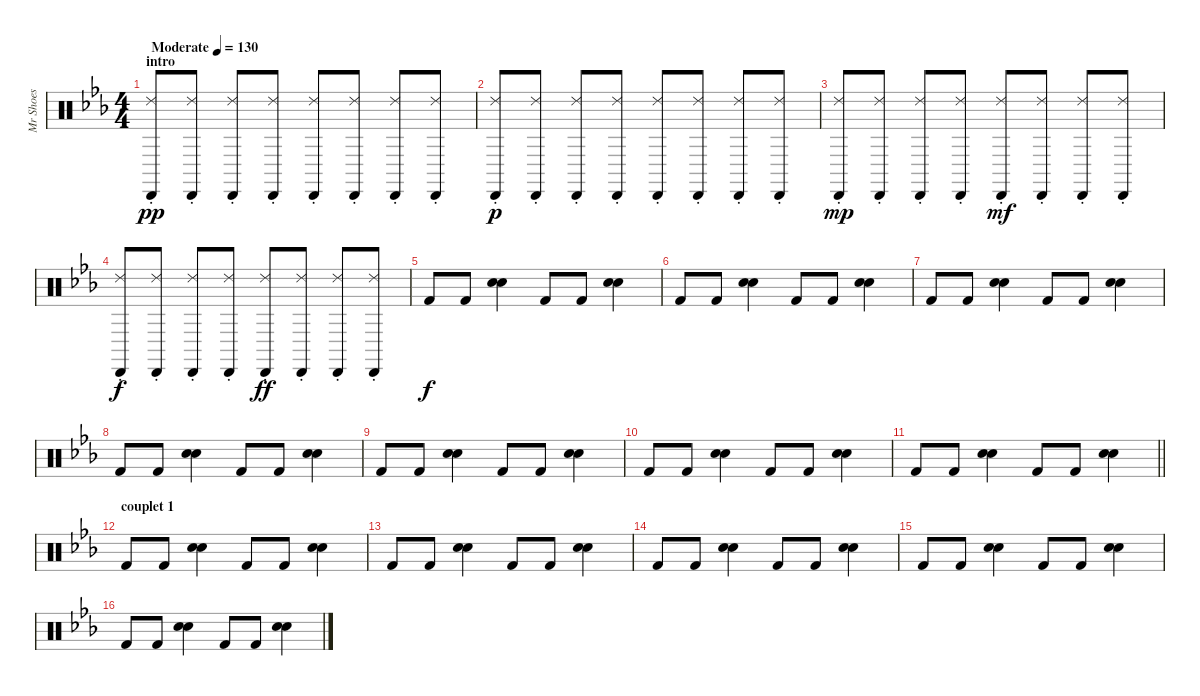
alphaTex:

\track ("Mr Shoes " "Mr Shoes ") {instrument percussion}
\staff {score}
\articulation defaults
\ts (4 4)
\section ("" "intro")
\tempo (130 "Moderate")
\clef neutral
\ks eb
("Ride (choke) 2" "Cabasa (hit)").8{dy pp} ("Ride (choke) 2" "Cabasa (hit)").8 ("Ride (choke) 2" "Cabasa (hit)").8 ("Ride (choke) 2" "Cabasa (hit)").8 ("Ride (choke) 2" "Cabasa (hit)").8 ("Ride (choke) 2" "Cabasa (hit)").8 ("Ride (choke) 2" "Cabasa (hit)").8 ("Ride (choke) 2" "Cabasa (hit)").8 |
("Ride (choke) 2" "Cabasa (hit)").8{dy p} ("Ride (choke) 2" "Cabasa (hit)").8 ("Ride (choke) 2" "Cabasa (hit)").8 ("Ride (choke) 2" "Cabasa (hit)").8 ("Ride (choke) 2" "Cabasa (hit)").8 ("Ride (choke) 2" "Cabasa (hit)").8 ("Ride (choke) 2" "Cabasa (hit)").8 ("Ride (choke) 2" "Cabasa (hit)").8 |
("Ride (choke) 2" "Cabasa (hit)").8{dy mp} ("Ride (choke) 2" "Cabasa (hit)").8 ("Ride (choke) 2" "Cabasa (hit)").8 ("Ride (choke) 2" "Cabasa (hit)").8 ("Ride (choke) 2" "Cabasa (hit)").8{dy mf} ("Ride (choke) 2" "Cabasa (hit)").8 ("Ride (choke) 2" "Cabasa (hit)").8 ("Ride (choke) 2" "Cabasa (hit)").8 |
("Ride (choke) 2" "Cabasa (hit)").8{dy f} ("Ride (choke) 2" "Cabasa (hit)").8 ("Ride (choke) 2" "Cabasa (hit)").8 ("Ride (choke) 2" "Cabasa (hit)").8 ("Ride (choke) 2" "Cabasa (hit)").8{dy ff} ("Ride (choke) 2" "Cabasa (hit)").8 ("Ride (choke) 2" "Cabasa (hit)").8 ("Ride (choke) 2" "Cabasa (hit)").8 |
"Kick (hit) 2".8{dy f} "Kick (hit) 2".8 ("Electric Snare (hit)" "Snare (hit) 2").4 "Kick (hit) 2".8 "Kick (hit) 2".8 ("Electric Snare (hit)" "Snare (hit) 2").4 |
"Kick (hit) 2".8 "Kick (hit) 2".8 ("Electric Snare (hit)" "Snare (hit) 2").4 "Kick (hit) 2".8 "Kick (hit) 2".8 ("Electric Snare (hit)" "Snare (hit) 2").4 |
"Kick (hit) 2".8 "Kick (hit) 2".8 ("Electric Snare (hit)" "Snare (hit) 2").4 "Kick (hit) 2".8 "Kick (hit) 2".8 ("Electric Snare (hit)" "Snare (hit) 2").4 |
"Kick (hit) 2".8 "Kick (hit) 2".8 ("Electric Snare (hit)" "Snare (hit) 2").4 "Kick (hit) 2".8 "Kick (hit) 2".8 ("Electric Snare (hit)" "Snare (hit) 2").4 |
"Kick (hit) 2".8 "Kick (hit) 2".8 ("Electric Snare (hit)" "Snare (hit) 2").4 "Kick (hit) 2".8 "Kick (hit) 2".8 ("Electric Snare (hit)" "Snare (hit) 2").4 |
"Kick (hit) 2".8 "Kick (hit) 2".8 ("Electric Snare (hit)" "Snare (hit) 2").4 "Kick (hit) 2".8 "Kick (hit) 2".8 ("Electric Snare (hit)" "Snare (hit) 2").4 |
\barLineRight lightlight "Kick (hit) 2".8 "Kick (hit) 2".8
("Electric Snare (hit)" "Snare (hit) 2").4 "Kick (hit) 2".8 "Kick (hit) 2".8 ("Electric Snare (hit)" "Snare (hit) 2").4 |
\section ("" "couplet 1")
"Kick (hit) 2".8 "Kick (hit) 2".8 ("Electric Snare (hit)" "Snare (hit) 2").4 "Kick (hit) 2".8 "Kick (hit) 2".8 ("Electric Snare (hit)" "Snare (hit) 2").4 |
"Kick (hit) 2".8 "Kick (hit) 2".8 ("Electric Snare (hit)" "Snare (hit) 2").4 "Kick (hit) 2".8 "Kick (hit) 2".8 ("Electric Snare (hit)" "Snare (hit) 2").4 |
"Kick (hit) 2".8 "Kick (hit) 2".8 ("Electric Snare (hit)" "Snare (hit) 2").4 "Kick (hit) 2".8 "Kick (hit) 2".8 ("Electric Snare (hit)" "Snare (hit) 2").4 |
"Kick (hit) 2".8 "Kick (hit) 2".8 ("Electric Snare (hit)" "Snare (hit) 2").4 "Kick (hit) 2".8 "Kick (hit) 2".8 ("Electric Snare (hit)" "Snare (hit) 2").4 |
"Kick (hit) 2".8 "Kick (hit) 2".8 ("Electric Snare (hit)" "Snare (hit) 2").4 "Kick (hit) 2".8 "Kick (hit) 2".8 ("Electric Snare (hit)" "Snare (hit) 2").4
